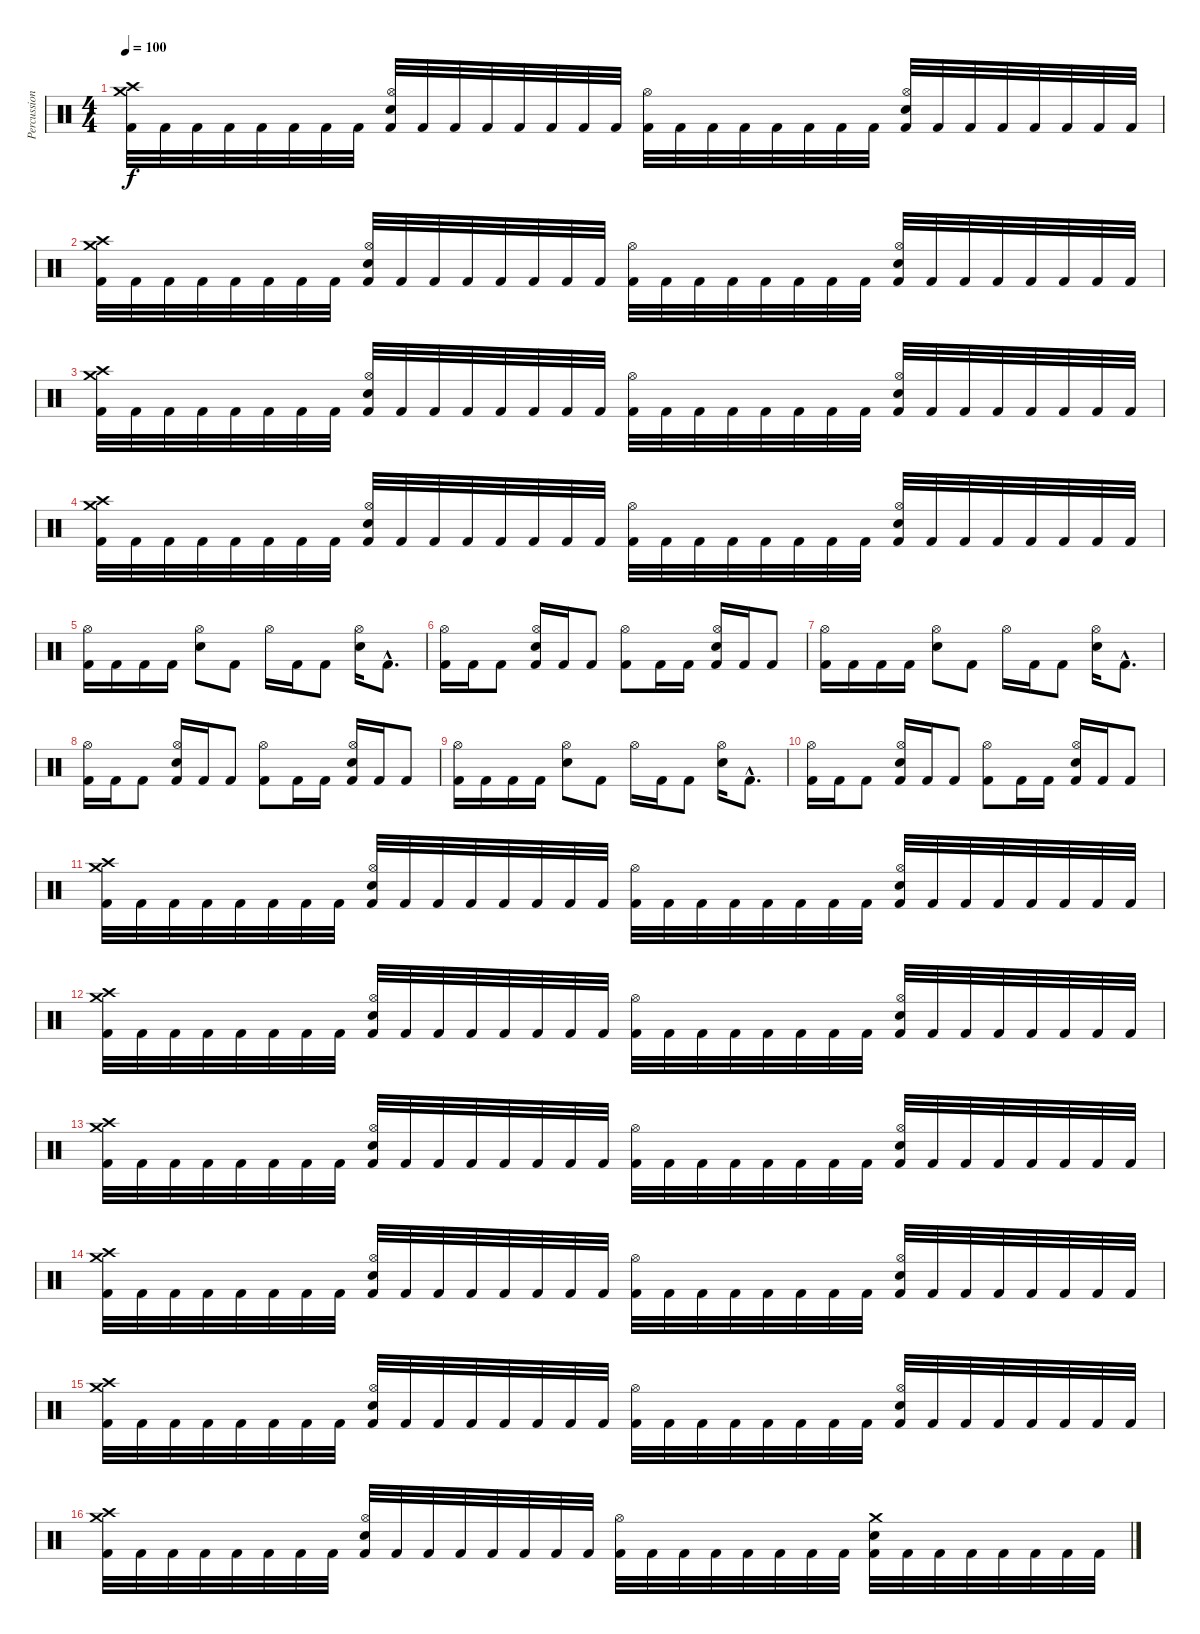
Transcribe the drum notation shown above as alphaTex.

\track ("Percussion" "Percussion") {instrument percussion}
\staff {score}
\articulation defaults
\ts (4 4)
\tempo 100
\clef neutral
\ks c
("Crash high (hit)" "Crash medium (hit)" "Kick (hit) 2").32{dy f} "Kick (hit) 2".32 "Kick (hit) 2".32 "Kick (hit) 2".32 "Kick (hit) 2".32 "Kick (hit) 2".32 "Kick (hit) 2".32 "Kick (hit) 2".32 ("Hi-Hat (open)" "Snare (hit) 2" "Kick (hit) 2").32 "Kick (hit) 2".32 "Kick (hit) 2".32 "Kick (hit) 2".32 "Kick (hit) 2".32 "Kick (hit) 2".32 "Kick (hit) 2".32 "Kick (hit) 2".32 ("Hi-Hat (open)" "Kick (hit) 2").32 "Kick (hit) 2".32 "Kick (hit) 2".32 "Kick (hit) 2".32 "Kick (hit) 2".32 "Kick (hit) 2".32 "Kick (hit) 2".32 "Kick (hit) 2".32 ("Hi-Hat (open)" "Snare (hit) 2" "Kick (hit) 2").32 "Kick (hit) 2".32 "Kick (hit) 2".32 "Kick (hit) 2".32 "Kick (hit) 2".32 "Kick (hit) 2".32 "Kick (hit) 2".32 "Kick (hit) 2".32 |
("Crash high (hit)" "Crash medium (hit)" "Kick (hit) 2").32 "Kick (hit) 2".32 "Kick (hit) 2".32 "Kick (hit) 2".32 "Kick (hit) 2".32 "Kick (hit) 2".32 "Kick (hit) 2".32 "Kick (hit) 2".32 ("Hi-Hat (open)" "Snare (hit) 2" "Kick (hit) 2").32 "Kick (hit) 2".32 "Kick (hit) 2".32 "Kick (hit) 2".32 "Kick (hit) 2".32 "Kick (hit) 2".32 "Kick (hit) 2".32 "Kick (hit) 2".32 ("Hi-Hat (open)" "Kick (hit) 2").32 "Kick (hit) 2".32 "Kick (hit) 2".32 "Kick (hit) 2".32 "Kick (hit) 2".32 "Kick (hit) 2".32 "Kick (hit) 2".32 "Kick (hit) 2".32 ("Hi-Hat (open)" "Snare (hit) 2" "Kick (hit) 2").32 "Kick (hit) 2".32 "Kick (hit) 2".32 "Kick (hit) 2".32 "Kick (hit) 2".32 "Kick (hit) 2".32 "Kick (hit) 2".32 "Kick (hit) 2".32 |
("Crash high (hit)" "Crash medium (hit)" "Kick (hit) 2").32 "Kick (hit) 2".32 "Kick (hit) 2".32 "Kick (hit) 2".32 "Kick (hit) 2".32 "Kick (hit) 2".32 "Kick (hit) 2".32 "Kick (hit) 2".32 ("Hi-Hat (open)" "Snare (hit) 2" "Kick (hit) 2").32 "Kick (hit) 2".32 "Kick (hit) 2".32 "Kick (hit) 2".32 "Kick (hit) 2".32 "Kick (hit) 2".32 "Kick (hit) 2".32 "Kick (hit) 2".32 ("Hi-Hat (open)" "Kick (hit) 2").32 "Kick (hit) 2".32 "Kick (hit) 2".32 "Kick (hit) 2".32 "Kick (hit) 2".32 "Kick (hit) 2".32 "Kick (hit) 2".32 "Kick (hit) 2".32 ("Hi-Hat (open)" "Snare (hit) 2" "Kick (hit) 2").32 "Kick (hit) 2".32 "Kick (hit) 2".32 "Kick (hit) 2".32 "Kick (hit) 2".32 "Kick (hit) 2".32 "Kick (hit) 2".32 "Kick (hit) 2".32 |
("Crash high (hit)" "Crash medium (hit)" "Kick (hit) 2").32 "Kick (hit) 2".32 "Kick (hit) 2".32 "Kick (hit) 2".32 "Kick (hit) 2".32 "Kick (hit) 2".32 "Kick (hit) 2".32 "Kick (hit) 2".32 ("Hi-Hat (open)" "Snare (hit) 2" "Kick (hit) 2").32 "Kick (hit) 2".32 "Kick (hit) 2".32 "Kick (hit) 2".32 "Kick (hit) 2".32 "Kick (hit) 2".32 "Kick (hit) 2".32 "Kick (hit) 2".32 ("Hi-Hat (open)" "Kick (hit) 2").32 "Kick (hit) 2".32 "Kick (hit) 2".32 "Kick (hit) 2".32 "Kick (hit) 2".32 "Kick (hit) 2".32 "Kick (hit) 2".32 "Kick (hit) 2".32 ("Hi-Hat (open)" "Snare (hit) 2" "Kick (hit) 2").32 "Kick (hit) 2".32 "Kick (hit) 2".32 "Kick (hit) 2".32 "Kick (hit) 2".32 "Kick (hit) 2".32 "Kick (hit) 2".32 "Kick (hit) 2".32 |
("Hi-Hat (open)" "Kick (hit) 2").16 "Kick (hit) 2".16 "Kick (hit) 2".16 "Kick (hit) 2".16 ("Hi-Hat (open)" "Snare (hit) 2").8 "Kick (hit) 2".8 "Hi-Hat (open)".16 "Kick (hit) 2".16 "Kick (hit) 2".8 ("Hi-Hat (open)" "Snare (hit) 2").16 "Kick (hit) 2"{hac}.8{d} |
("Hi-Hat (open)" "Kick (hit) 2").16 "Kick (hit) 2".16 "Kick (hit) 2".8 ("Hi-Hat (open)" "Snare (hit) 2" "Kick (hit) 2").16 "Kick (hit) 2".16 "Kick (hit) 2".8 ("Hi-Hat (open)" "Kick (hit) 2").8 "Kick (hit) 2".16 "Kick (hit) 2".16 ("Hi-Hat (open)" "Snare (hit) 2" "Kick (hit) 2").16 "Kick (hit) 2".16 "Kick (hit) 2".8 |
("Hi-Hat (open)" "Kick (hit) 2").16 "Kick (hit) 2".16 "Kick (hit) 2".16 "Kick (hit) 2".16 ("Hi-Hat (open)" "Snare (hit) 2").8 "Kick (hit) 2".8 "Hi-Hat (open)".16 "Kick (hit) 2".16 "Kick (hit) 2".8 ("Hi-Hat (open)" "Snare (hit) 2").16 "Kick (hit) 2"{hac}.8{d} |
("Hi-Hat (open)" "Kick (hit) 2").16 "Kick (hit) 2".16 "Kick (hit) 2".8 ("Hi-Hat (open)" "Snare (hit) 2" "Kick (hit) 2").16 "Kick (hit) 2".16 "Kick (hit) 2".8 ("Hi-Hat (open)" "Kick (hit) 2").8 "Kick (hit) 2".16 "Kick (hit) 2".16 ("Hi-Hat (open)" "Snare (hit) 2" "Kick (hit) 2").16 "Kick (hit) 2".16 "Kick (hit) 2".8 |
("Hi-Hat (open)" "Kick (hit) 2").16 "Kick (hit) 2".16 "Kick (hit) 2".16 "Kick (hit) 2".16 ("Hi-Hat (open)" "Snare (hit) 2").8 "Kick (hit) 2".8 "Hi-Hat (open)".16 "Kick (hit) 2".16 "Kick (hit) 2".8 ("Hi-Hat (open)" "Snare (hit) 2").16 "Kick (hit) 2"{hac}.8{d} |
("Hi-Hat (open)" "Kick (hit) 2").16 "Kick (hit) 2".16 "Kick (hit) 2".8 ("Hi-Hat (open)" "Snare (hit) 2" "Kick (hit) 2").16 "Kick (hit) 2".16 "Kick (hit) 2".8 ("Hi-Hat (open)" "Kick (hit) 2").8 "Kick (hit) 2".16 "Kick (hit) 2".16 ("Hi-Hat (open)" "Snare (hit) 2" "Kick (hit) 2").16 "Kick (hit) 2".16 "Kick (hit) 2".8 |
("Crash high (hit)" "Crash medium (hit)" "Kick (hit) 2").32 "Kick (hit) 2".32 "Kick (hit) 2".32 "Kick (hit) 2".32 "Kick (hit) 2".32 "Kick (hit) 2".32 "Kick (hit) 2".32 "Kick (hit) 2".32 ("Hi-Hat (open)" "Snare (hit) 2" "Kick (hit) 2").32 "Kick (hit) 2".32 "Kick (hit) 2".32 "Kick (hit) 2".32 "Kick (hit) 2".32 "Kick (hit) 2".32 "Kick (hit) 2".32 "Kick (hit) 2".32 ("Hi-Hat (open)" "Kick (hit) 2").32 "Kick (hit) 2".32 "Kick (hit) 2".32 "Kick (hit) 2".32 "Kick (hit) 2".32 "Kick (hit) 2".32 "Kick (hit) 2".32 "Kick (hit) 2".32 ("Hi-Hat (open)" "Snare (hit) 2" "Kick (hit) 2").32 "Kick (hit) 2".32 "Kick (hit) 2".32 "Kick (hit) 2".32 "Kick (hit) 2".32 "Kick (hit) 2".32 "Kick (hit) 2".32 "Kick (hit) 2".32 |
("Crash high (hit)" "Crash medium (hit)" "Kick (hit) 2").32 "Kick (hit) 2".32 "Kick (hit) 2".32 "Kick (hit) 2".32 "Kick (hit) 2".32 "Kick (hit) 2".32 "Kick (hit) 2".32 "Kick (hit) 2".32 ("Hi-Hat (open)" "Snare (hit) 2" "Kick (hit) 2").32 "Kick (hit) 2".32 "Kick (hit) 2".32 "Kick (hit) 2".32 "Kick (hit) 2".32 "Kick (hit) 2".32 "Kick (hit) 2".32 "Kick (hit) 2".32 ("Hi-Hat (open)" "Kick (hit) 2").32 "Kick (hit) 2".32 "Kick (hit) 2".32 "Kick (hit) 2".32 "Kick (hit) 2".32 "Kick (hit) 2".32 "Kick (hit) 2".32 "Kick (hit) 2".32 ("Hi-Hat (open)" "Snare (hit) 2" "Kick (hit) 2").32 "Kick (hit) 2".32 "Kick (hit) 2".32 "Kick (hit) 2".32 "Kick (hit) 2".32 "Kick (hit) 2".32 "Kick (hit) 2".32 "Kick (hit) 2".32 |
("Crash high (hit)" "Crash medium (hit)" "Kick (hit) 2").32 "Kick (hit) 2".32 "Kick (hit) 2".32 "Kick (hit) 2".32 "Kick (hit) 2".32 "Kick (hit) 2".32 "Kick (hit) 2".32 "Kick (hit) 2".32 ("Hi-Hat (open)" "Snare (hit) 2" "Kick (hit) 2").32 "Kick (hit) 2".32 "Kick (hit) 2".32 "Kick (hit) 2".32 "Kick (hit) 2".32 "Kick (hit) 2".32 "Kick (hit) 2".32 "Kick (hit) 2".32 ("Hi-Hat (open)" "Kick (hit) 2").32 "Kick (hit) 2".32 "Kick (hit) 2".32 "Kick (hit) 2".32 "Kick (hit) 2".32 "Kick (hit) 2".32 "Kick (hit) 2".32 "Kick (hit) 2".32 ("Hi-Hat (open)" "Snare (hit) 2" "Kick (hit) 2").32 "Kick (hit) 2".32 "Kick (hit) 2".32 "Kick (hit) 2".32 "Kick (hit) 2".32 "Kick (hit) 2".32 "Kick (hit) 2".32 "Kick (hit) 2".32 |
("Crash high (hit)" "Crash medium (hit)" "Kick (hit) 2").32 "Kick (hit) 2".32 "Kick (hit) 2".32 "Kick (hit) 2".32 "Kick (hit) 2".32 "Kick (hit) 2".32 "Kick (hit) 2".32 "Kick (hit) 2".32 ("Hi-Hat (open)" "Snare (hit) 2" "Kick (hit) 2").32 "Kick (hit) 2".32 "Kick (hit) 2".32 "Kick (hit) 2".32 "Kick (hit) 2".32 "Kick (hit) 2".32 "Kick (hit) 2".32 "Kick (hit) 2".32 ("Hi-Hat (open)" "Kick (hit) 2").32 "Kick (hit) 2".32 "Kick (hit) 2".32 "Kick (hit) 2".32 "Kick (hit) 2".32 "Kick (hit) 2".32 "Kick (hit) 2".32 "Kick (hit) 2".32 ("Hi-Hat (open)" "Snare (hit) 2" "Kick (hit) 2").32 "Kick (hit) 2".32 "Kick (hit) 2".32 "Kick (hit) 2".32 "Kick (hit) 2".32 "Kick (hit) 2".32 "Kick (hit) 2".32 "Kick (hit) 2".32 |
("Crash high (hit)" "Crash medium (hit)" "Kick (hit) 2").32 "Kick (hit) 2".32 "Kick (hit) 2".32 "Kick (hit) 2".32 "Kick (hit) 2".32 "Kick (hit) 2".32 "Kick (hit) 2".32 "Kick (hit) 2".32 ("Hi-Hat (open)" "Snare (hit) 2" "Kick (hit) 2").32 "Kick (hit) 2".32 "Kick (hit) 2".32 "Kick (hit) 2".32 "Kick (hit) 2".32 "Kick (hit) 2".32 "Kick (hit) 2".32 "Kick (hit) 2".32 ("Hi-Hat (open)" "Kick (hit) 2").32 "Kick (hit) 2".32 "Kick (hit) 2".32 "Kick (hit) 2".32 "Kick (hit) 2".32 "Kick (hit) 2".32 "Kick (hit) 2".32 "Kick (hit) 2".32 ("Hi-Hat (open)" "Snare (hit) 2" "Kick (hit) 2").32 "Kick (hit) 2".32 "Kick (hit) 2".32 "Kick (hit) 2".32 "Kick (hit) 2".32 "Kick (hit) 2".32 "Kick (hit) 2".32 "Kick (hit) 2".32 |
("Crash high (hit)" "Crash medium (hit)" "Kick (hit) 2").32 "Kick (hit) 2".32 "Kick (hit) 2".32 "Kick (hit) 2".32 "Kick (hit) 2".32 "Kick (hit) 2".32 "Kick (hit) 2".32 "Kick (hit) 2".32 ("Hi-Hat (open)" "Snare (hit) 2" "Kick (hit) 2").32 "Kick (hit) 2".32 "Kick (hit) 2".32 "Kick (hit) 2".32 "Kick (hit) 2".32 "Kick (hit) 2".32 "Kick (hit) 2".32 "Kick (hit) 2".32 ("Hi-Hat (open)" "Kick (hit) 2").32 "Kick (hit) 2".32 "Kick (hit) 2".32 "Kick (hit) 2".32 "Kick (hit) 2".32 "Kick (hit) 2".32 "Kick (hit) 2".32 "Kick (hit) 2".32 ("Crash medium (hit)" "Snare (hit) 2" "Kick (hit) 2").32 "Kick (hit) 2".32 "Kick (hit) 2".32 "Kick (hit) 2".32 "Kick (hit) 2".32 "Kick (hit) 2".32 "Kick (hit) 2".32 "Kick (hit) 2".32
